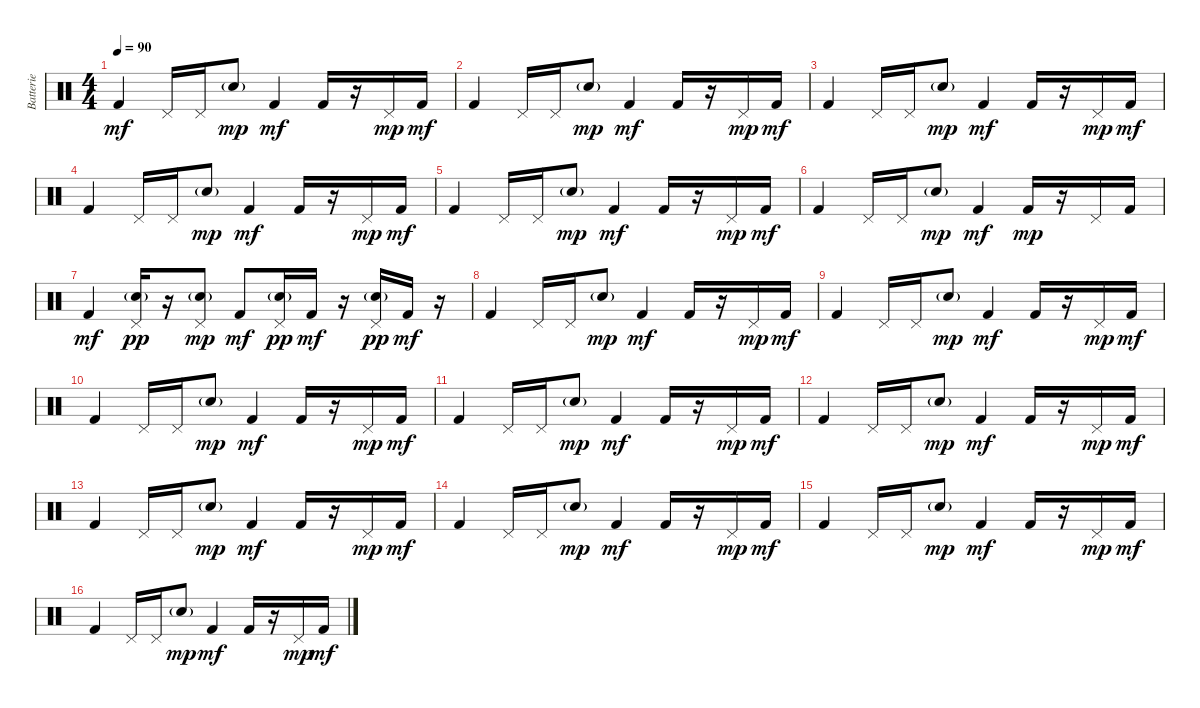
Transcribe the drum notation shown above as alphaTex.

\track ("Batterie" "Batterie") {instrument percussion}
\staff {score}
\articulation defaults
\ts (4 4)
\tempo 90
\clef neutral
\ks c "Kick (hit) 2".4{dy mf} "Pedal Hi-Hat (hit)".16 "Pedal Hi-Hat (hit)".16 "Hand Clap (hit)"{g}.8{dy mp} "Kick (hit) 2".4{dy mf} "Kick (hit) 2".16
r.16 "Pedal Hi-Hat (hit)".16{dy mp} "Kick (hit) 2".16{dy mf} |
"Kick (hit) 2".4 "Pedal Hi-Hat (hit)".16 "Pedal Hi-Hat (hit)".16 "Hand Clap (hit)"{g}.8{dy mp} "Kick (hit) 2".4{dy mf} "Kick (hit) 2".16 r.16 "Pedal Hi-Hat (hit)".16{dy mp} "Kick (hit) 2".16{dy mf} |
"Kick (hit) 2".4 "Pedal Hi-Hat (hit)".16 "Pedal Hi-Hat (hit)".16 "Hand Clap (hit)"{g}.8{dy mp} "Kick (hit) 2".4{dy mf} "Kick (hit) 2".16 r.16 "Pedal Hi-Hat (hit)".16{dy mp} "Kick (hit) 2".16{dy mf} |
"Kick (hit) 2".4 "Pedal Hi-Hat (hit)".16 "Pedal Hi-Hat (hit)".16 "Hand Clap (hit)"{g}.8{dy mp} "Kick (hit) 2".4{dy mf} "Kick (hit) 2".16 r.16 "Pedal Hi-Hat (hit)".16{dy mp} "Kick (hit) 2".16{dy mf} |
"Kick (hit) 2".4 "Pedal Hi-Hat (hit)".16 "Pedal Hi-Hat (hit)".16 "Hand Clap (hit)"{g}.8{dy mp} "Kick (hit) 2".4{dy mf} "Kick (hit) 2".16 r.16 "Pedal Hi-Hat (hit)".16{dy mp} "Kick (hit) 2".16{dy mf} |
"Kick (hit) 2".4 "Pedal Hi-Hat (hit)".16 "Pedal Hi-Hat (hit)".16 "Hand Clap (hit)"{g}.8{dy mp} "Kick (hit) 2".4{dy mf} "Kick (hit) 2".16{dy mp} r.16 "Pedal Hi-Hat (hit)".16 "Kick (hit) 2".16 |
"Kick (hit) 2".4{dy mf} ("Pedal Hi-Hat (hit)" "Electric Snare (hit)"{g}).16{dy pp} r.16 ("Pedal Hi-Hat (hit)" "Electric Snare (hit)"{g}).8{dy mp} "Kick (hit) 2".8{dy mf} ("Pedal Hi-Hat (hit)" "Electric Snare (hit)"{g}).16{dy pp} "Kick (hit) 2".16{dy mf} r.16 ("Pedal Hi-Hat (hit)" "Electric Snare (hit)"{g}).16{dy pp} "Kick (hit) 2".16{dy mf} r.16 |
"Kick (hit) 2".4 "Pedal Hi-Hat (hit)".16 "Pedal Hi-Hat (hit)".16 "Hand Clap (hit)"{g}.8{dy mp} "Kick (hit) 2".4{dy mf} "Kick (hit) 2".16 r.16 "Pedal Hi-Hat (hit)".16{dy mp} "Kick (hit) 2".16{dy mf} |
"Kick (hit) 2".4 "Pedal Hi-Hat (hit)".16 "Pedal Hi-Hat (hit)".16 "Hand Clap (hit)"{g}.8{dy mp} "Kick (hit) 2".4{dy mf} "Kick (hit) 2".16 r.16 "Pedal Hi-Hat (hit)".16{dy mp} "Kick (hit) 2".16{dy mf} |
"Kick (hit) 2".4 "Pedal Hi-Hat (hit)".16 "Pedal Hi-Hat (hit)".16 "Hand Clap (hit)"{g}.8{dy mp} "Kick (hit) 2".4{dy mf} "Kick (hit) 2".16 r.16 "Pedal Hi-Hat (hit)".16{dy mp} "Kick (hit) 2".16{dy mf} |
"Kick (hit) 2".4 "Pedal Hi-Hat (hit)".16 "Pedal Hi-Hat (hit)".16 "Hand Clap (hit)"{g}.8{dy mp} "Kick (hit) 2".4{dy mf} "Kick (hit) 2".16 r.16 "Pedal Hi-Hat (hit)".16{dy mp} "Kick (hit) 2".16{dy mf} |
"Kick (hit) 2".4 "Pedal Hi-Hat (hit)".16 "Pedal Hi-Hat (hit)".16 "Hand Clap (hit)"{g}.8{dy mp} "Kick (hit) 2".4{dy mf} "Kick (hit) 2".16 r.16 "Pedal Hi-Hat (hit)".16{dy mp} "Kick (hit) 2".16{dy mf} |
"Kick (hit) 2".4 "Pedal Hi-Hat (hit)".16 "Pedal Hi-Hat (hit)".16 "Hand Clap (hit)"{g}.8{dy mp} "Kick (hit) 2".4{dy mf} "Kick (hit) 2".16 r.16 "Pedal Hi-Hat (hit)".16{dy mp} "Kick (hit) 2".16{dy mf} |
"Kick (hit) 2".4 "Pedal Hi-Hat (hit)".16 "Pedal Hi-Hat (hit)".16 "Hand Clap (hit)"{g}.8{dy mp} "Kick (hit) 2".4{dy mf} "Kick (hit) 2".16 r.16 "Pedal Hi-Hat (hit)".16{dy mp} "Kick (hit) 2".16{dy mf} |
"Kick (hit) 2".4 "Pedal Hi-Hat (hit)".16 "Pedal Hi-Hat (hit)".16 "Hand Clap (hit)"{g}.8{dy mp} "Kick (hit) 2".4{dy mf} "Kick (hit) 2".16 r.16 "Pedal Hi-Hat (hit)".16{dy mp} "Kick (hit) 2".16{dy mf} |
"Kick (hit) 2".4 "Pedal Hi-Hat (hit)".16 "Pedal Hi-Hat (hit)".16 "Hand Clap (hit)"{g}.8{dy mp} "Kick (hit) 2".4{dy mf} "Kick (hit) 2".16 r.16 "Pedal Hi-Hat (hit)".16{dy mp} "Kick (hit) 2".16{dy mf}
